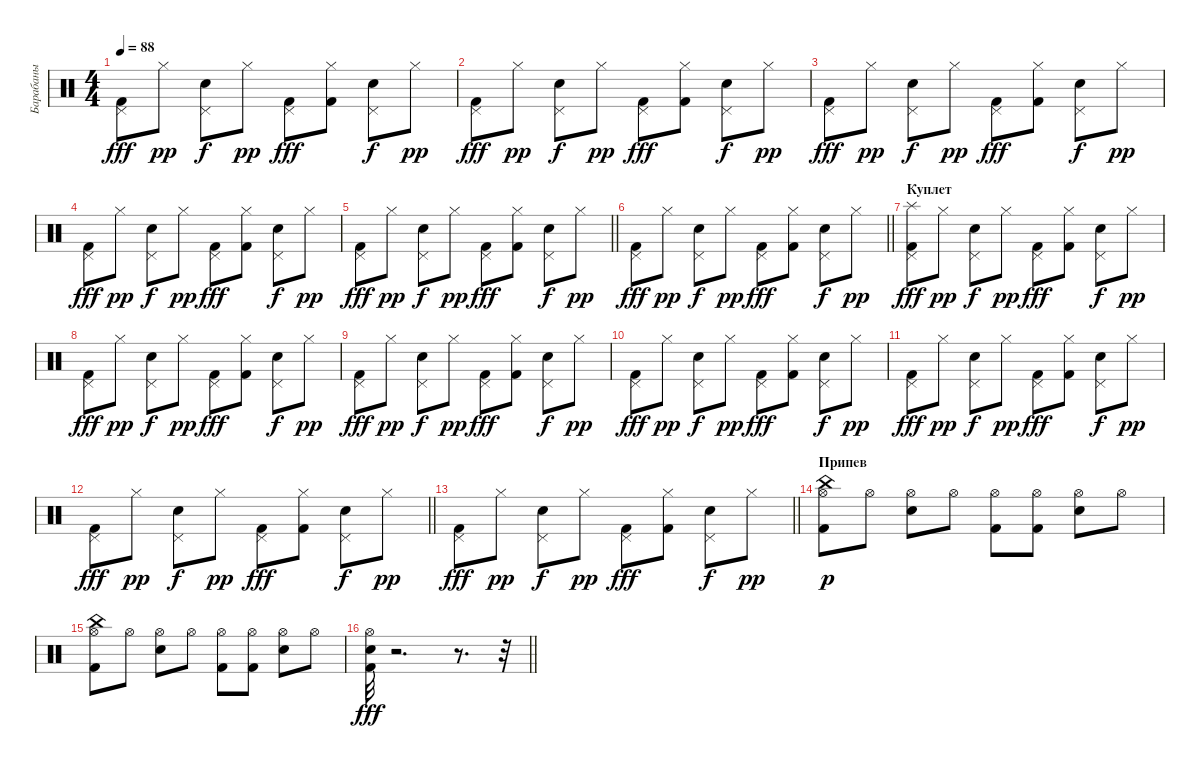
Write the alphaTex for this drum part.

\track ("Барабаны" "Барабаны") {instrument percussion}
\staff {score}
\articulation defaults
\ts (4 4)
\tempo 88
\clef neutral
\ks c
("Pedal Hi-Hat (hit)" "Kick (hit) 2").8{dy fff} "Hi-Hat (closed)".8{dy pp} ("Pedal Hi-Hat (hit)" "Electric Snare (hit)").8{dy f} "Hi-Hat (closed)".8{dy pp} ("Pedal Hi-Hat (hit)" "Kick (hit) 2").8{dy fff} ("Hi-Hat (closed)" "Kick (hit) 2").8 ("Pedal Hi-Hat (hit)" "Electric Snare (hit)").8{dy f} "Hi-Hat (closed)".8{dy pp} |
("Pedal Hi-Hat (hit)" "Kick (hit) 2").8{dy fff} "Hi-Hat (closed)".8{dy pp} ("Pedal Hi-Hat (hit)" "Electric Snare (hit)").8{dy f} "Hi-Hat (closed)".8{dy pp} ("Pedal Hi-Hat (hit)" "Kick (hit) 2").8{dy fff} ("Hi-Hat (closed)" "Kick (hit) 2").8 ("Pedal Hi-Hat (hit)" "Electric Snare (hit)").8{dy f} "Hi-Hat (closed)".8{dy pp} |
("Pedal Hi-Hat (hit)" "Kick (hit) 2").8{dy fff} "Hi-Hat (closed)".8{dy pp} ("Pedal Hi-Hat (hit)" "Electric Snare (hit)").8{dy f} "Hi-Hat (closed)".8{dy pp} ("Pedal Hi-Hat (hit)" "Kick (hit) 2").8{dy fff} ("Hi-Hat (closed)" "Kick (hit) 2").8 ("Pedal Hi-Hat (hit)" "Electric Snare (hit)").8{dy f} "Hi-Hat (closed)".8{dy pp} |
("Pedal Hi-Hat (hit)" "Kick (hit) 2").8{dy fff} "Hi-Hat (closed)".8{dy pp} ("Pedal Hi-Hat (hit)" "Electric Snare (hit)").8{dy f} "Hi-Hat (closed)".8{dy pp} ("Pedal Hi-Hat (hit)" "Kick (hit) 2").8{dy fff} ("Hi-Hat (closed)" "Kick (hit) 2").8 ("Pedal Hi-Hat (hit)" "Electric Snare (hit)").8{dy f} "Hi-Hat (closed)".8{dy pp} |
\barLineRight lightlight
("Pedal Hi-Hat (hit)" "Kick (hit) 2").8{dy fff} "Hi-Hat (closed)".8{dy pp} ("Pedal Hi-Hat (hit)" "Electric Snare (hit)").8{dy f} "Hi-Hat (closed)".8{dy pp} ("Pedal Hi-Hat (hit)" "Kick (hit) 2").8{dy fff} ("Hi-Hat (closed)" "Kick (hit) 2").8 ("Pedal Hi-Hat (hit)" "Electric Snare (hit)").8{dy f} "Hi-Hat (closed)".8{dy pp} |
\barLineRight lightlight
("Pedal Hi-Hat (hit)" "Kick (hit) 2").8{dy fff} "Hi-Hat (closed)".8{dy pp} ("Pedal Hi-Hat (hit)" "Electric Snare (hit)").8{dy f} "Hi-Hat (closed)".8{dy pp} ("Pedal Hi-Hat (hit)" "Kick (hit) 2").8{dy fff} ("Hi-Hat (closed)" "Kick (hit) 2").8 ("Pedal Hi-Hat (hit)" "Electric Snare (hit)").8{dy f} "Hi-Hat (closed)".8{dy pp} |
\section ("" "Куплет")
("Splash (hit)" "Pedal Hi-Hat (hit)" "Kick (hit) 2").8{dy fff} "Hi-Hat (closed)".8{dy pp} ("Pedal Hi-Hat (hit)" "Electric Snare (hit)").8{dy f} "Hi-Hat (closed)".8{dy pp} ("Pedal Hi-Hat (hit)" "Kick (hit) 2").8{dy fff} ("Hi-Hat (closed)" "Kick (hit) 2").8 ("Pedal Hi-Hat (hit)" "Electric Snare (hit)").8{dy f} "Hi-Hat (closed)".8{dy pp} |
("Pedal Hi-Hat (hit)" "Kick (hit) 2").8{dy fff} "Hi-Hat (closed)".8{dy pp} ("Pedal Hi-Hat (hit)" "Electric Snare (hit)").8{dy f} "Hi-Hat (closed)".8{dy pp} ("Pedal Hi-Hat (hit)" "Kick (hit) 2").8{dy fff} ("Hi-Hat (closed)" "Kick (hit) 2").8 ("Pedal Hi-Hat (hit)" "Electric Snare (hit)").8{dy f} "Hi-Hat (closed)".8{dy pp} |
("Pedal Hi-Hat (hit)" "Kick (hit) 2").8{dy fff} "Hi-Hat (closed)".8{dy pp} ("Pedal Hi-Hat (hit)" "Electric Snare (hit)").8{dy f} "Hi-Hat (closed)".8{dy pp} ("Pedal Hi-Hat (hit)" "Kick (hit) 2").8{dy fff} ("Hi-Hat (closed)" "Kick (hit) 2").8 ("Pedal Hi-Hat (hit)" "Electric Snare (hit)").8{dy f} "Hi-Hat (closed)".8{dy pp} |
("Pedal Hi-Hat (hit)" "Kick (hit) 2").8{dy fff} "Hi-Hat (closed)".8{dy pp} ("Pedal Hi-Hat (hit)" "Electric Snare (hit)").8{dy f} "Hi-Hat (closed)".8{dy pp} ("Pedal Hi-Hat (hit)" "Kick (hit) 2").8{dy fff} ("Hi-Hat (closed)" "Kick (hit) 2").8 ("Pedal Hi-Hat (hit)" "Electric Snare (hit)").8{dy f} "Hi-Hat (closed)".8{dy pp} |
("Pedal Hi-Hat (hit)" "Kick (hit) 2").8{dy fff} "Hi-Hat (closed)".8{dy pp} ("Pedal Hi-Hat (hit)" "Electric Snare (hit)").8{dy f} "Hi-Hat (closed)".8{dy pp} ("Pedal Hi-Hat (hit)" "Kick (hit) 2").8{dy fff} ("Hi-Hat (closed)" "Kick (hit) 2").8 ("Pedal Hi-Hat (hit)" "Electric Snare (hit)").8{dy f} "Hi-Hat (closed)".8{dy pp} |
\barLineRight lightlight
("Pedal Hi-Hat (hit)" "Kick (hit) 2").8{dy fff} "Hi-Hat (closed)".8{dy pp} ("Pedal Hi-Hat (hit)" "Electric Snare (hit)").8{dy f} "Hi-Hat (closed)".8{dy pp} ("Pedal Hi-Hat (hit)" "Kick (hit) 2").8{dy fff} ("Hi-Hat (closed)" "Kick (hit) 2").8 ("Pedal Hi-Hat (hit)" "Electric Snare (hit)").8{dy f} "Hi-Hat (closed)".8{dy pp} |
\barLineRight lightlight
("Pedal Hi-Hat (hit)" "Kick (hit) 2").8{dy fff} "Hi-Hat (closed)".8{dy pp} ("Pedal Hi-Hat (hit)" "Electric Snare (hit)").8{dy f} "Hi-Hat (closed)".8{dy pp} ("Pedal Hi-Hat (hit)" "Kick (hit) 2").8{dy fff} ("Hi-Hat (closed)" "Kick (hit) 2").8 ("Pedal Hi-Hat (hit)" "Electric Snare (hit)").8{dy f} "Hi-Hat (closed)".8{dy pp} |
\section ("" "Припев")
("China (hit)" "Kick (hit) 2" "Hi-Hat (open)").8{dy p} "Hi-Hat (open)".8 ("Electric Snare (hit)" "Hi-Hat (open)").8 "Hi-Hat (open)".8 ("Kick (hit) 2" "Hi-Hat (open)").8 ("Kick (hit) 2" "Hi-Hat (open)").8 ("Electric Snare (hit)" "Hi-Hat (open)").8 "Hi-Hat (open)".8 |
("China (hit)" "Kick (hit) 2" "Hi-Hat (open)").8 "Hi-Hat (open)".8 ("Electric Snare (hit)" "Hi-Hat (open)").8 "Hi-Hat (open)".8 ("Kick (hit) 2" "Hi-Hat (open)").8 ("Kick (hit) 2" "Hi-Hat (open)").8 ("Electric Snare (hit)" "Hi-Hat (open)").8 "Hi-Hat (open)".8 |
\barLineRight lightlight
("Electric Snare (hit)" "Kick (hit) 2" "Hi-Hat (open)").32{dy fff} r.2{d} r.8{d} r.32
